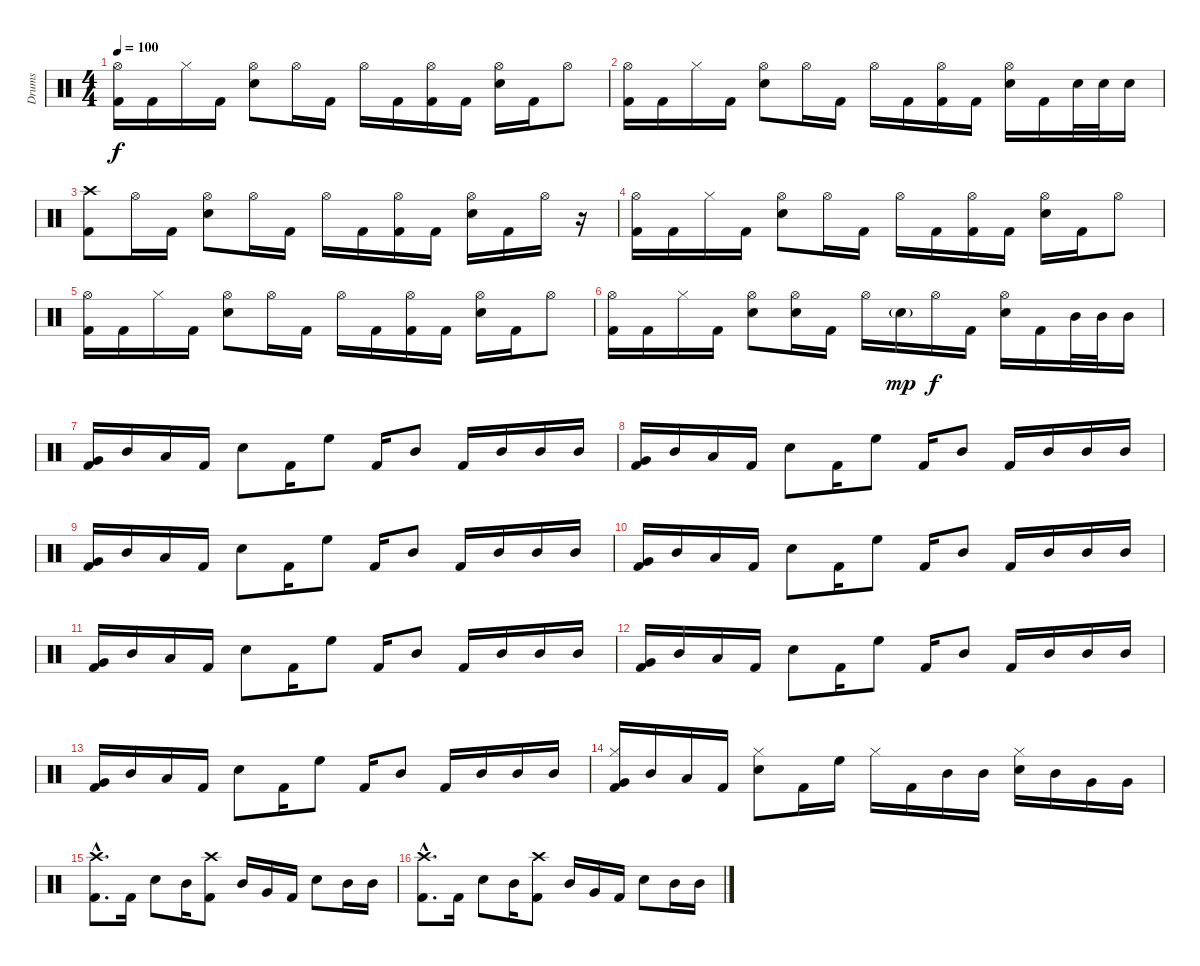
\track ("Drums" "Drums") {instrument percussion}
\staff {score}
\articulation defaults
\ts (4 4)
\tempo 100
\clef neutral
\ks c
("Hi-Hat (open)" "Kick (hit) 2").16{dy f} "Kick (hit) 2".16 "Hi-Hat (closed)".16 "Kick (hit) 2".16 ("Hi-Hat (open)" "Snare (hit) 2").8 "Hi-Hat (open)".16 "Kick (hit) 2".16 "Hi-Hat (open)".16 "Kick (hit) 2".16 ("Hi-Hat (open)" "Kick (hit) 2").16 "Kick (hit) 2".16 ("Hi-Hat (open)" "Snare (hit) 2").16 "Kick (hit) 2".16 "Hi-Hat (open)".8 |
("Hi-Hat (open)" "Kick (hit) 2").16 "Kick (hit) 2".16 "Hi-Hat (closed)".16 "Kick (hit) 2".16 ("Hi-Hat (open)" "Snare (hit) 2").8 "Hi-Hat (open)".16 "Kick (hit) 2".16 "Hi-Hat (open)".16 "Kick (hit) 2".16 ("Hi-Hat (open)" "Kick (hit) 2").16 "Kick (hit) 2".16 ("Hi-Hat (open)" "Snare (hit) 2").16 "Kick (hit) 2".16 "Snare (hit) 2".32 "Snare (hit) 2".32 "Snare (hit) 2".16 |
("Crash high (hit)" "Kick (hit) 2").8 "Hi-Hat (open)".16 "Kick (hit) 2".16 ("Hi-Hat (open)" "Snare (hit) 2").8 "Hi-Hat (open)".16 "Kick (hit) 2".16 "Hi-Hat (open)".16 "Kick (hit) 2".16 ("Hi-Hat (open)" "Kick (hit) 2").16 "Kick (hit) 2".16 ("Hi-Hat (open)" "Snare (hit) 2").16 "Kick (hit) 2".16 "Hi-Hat (open)".16 r.16 |
("Hi-Hat (open)" "Kick (hit) 2").16 "Kick (hit) 2".16 "Hi-Hat (closed)".16 "Kick (hit) 2".16 ("Hi-Hat (open)" "Snare (hit) 2").8 "Hi-Hat (open)".16 "Kick (hit) 2".16 "Hi-Hat (open)".16 "Kick (hit) 2".16 ("Hi-Hat (open)" "Kick (hit) 2").16 "Kick (hit) 2".16 ("Hi-Hat (open)" "Snare (hit) 2").16 "Kick (hit) 2".16 "Hi-Hat (open)".8 |
("Hi-Hat (open)" "Kick (hit) 2").16 "Kick (hit) 2".16 "Hi-Hat (closed)".16 "Kick (hit) 2".16 ("Hi-Hat (open)" "Snare (hit) 2").8 "Hi-Hat (open)".16 "Kick (hit) 2".16 "Hi-Hat (open)".16 "Kick (hit) 2".16 ("Hi-Hat (open)" "Kick (hit) 2").16 "Kick (hit) 2".16 ("Hi-Hat (open)" "Snare (hit) 2").16 "Kick (hit) 2".16 "Hi-Hat (open)".8 |
("Hi-Hat (open)" "Kick (hit) 2").16 "Kick (hit) 2".16 "Hi-Hat (closed)".16 "Kick (hit) 2".16 ("Hi-Hat (open)" "Snare (hit) 2").8 ("Hi-Hat (open)" "Snare (hit) 2").16 "Kick (hit) 2".16 "Hi-Hat (open)".16 "Snare (hit) 2"{g}.16{dy mp} "Hi-Hat (open)".16{dy f} "Kick (hit) 2".16 ("Hi-Hat (open)" "Snare (hit) 2").16 "Kick (hit) 2".16 "Mid Tom (hit)".32 "Mid Tom (hit)".32 "Mid Tom (hit)".16 |
("Very Low Tom (hit)" "Kick (hit) 2").16 "Mid Tom (hit)".16 "Low Floor Tom (hit)".16 "Kick (hit) 2".16 "Snare (hit) 2".8 "Kick (hit) 2".16 "High Floor Tom (hit)".8 "Kick (hit) 2".16 "Mid Tom (hit)".8 "Kick (hit) 2".16 "Mid Tom (hit)".16 "Mid Tom (hit)".16 "Mid Tom (hit)".16 |
("Very Low Tom (hit)" "Kick (hit) 2").16 "Mid Tom (hit)".16 "Low Floor Tom (hit)".16 "Kick (hit) 2".16 "Snare (hit) 2".8 "Kick (hit) 2".16 "High Floor Tom (hit)".8 "Kick (hit) 2".16 "Mid Tom (hit)".8 "Kick (hit) 2".16 "Mid Tom (hit)".16 "Mid Tom (hit)".16 "Mid Tom (hit)".16 |
("Very Low Tom (hit)" "Kick (hit) 2").16 "Mid Tom (hit)".16 "Low Floor Tom (hit)".16 "Kick (hit) 2".16 "Snare (hit) 2".8 "Kick (hit) 2".16 "High Floor Tom (hit)".8 "Kick (hit) 2".16 "Mid Tom (hit)".8 "Kick (hit) 2".16 "Mid Tom (hit)".16 "Mid Tom (hit)".16 "Mid Tom (hit)".16 |
("Very Low Tom (hit)" "Kick (hit) 2").16 "Mid Tom (hit)".16 "Low Floor Tom (hit)".16 "Kick (hit) 2".16 "Snare (hit) 2".8 "Kick (hit) 2".16 "High Floor Tom (hit)".8 "Kick (hit) 2".16 "Mid Tom (hit)".8 "Kick (hit) 2".16 "Mid Tom (hit)".16 "Mid Tom (hit)".16 "Mid Tom (hit)".16 |
("Very Low Tom (hit)" "Kick (hit) 2").16 "Mid Tom (hit)".16 "Low Floor Tom (hit)".16 "Kick (hit) 2".16 "Snare (hit) 2".8 "Kick (hit) 2".16 "High Floor Tom (hit)".8 "Kick (hit) 2".16 "Mid Tom (hit)".8 "Kick (hit) 2".16 "Mid Tom (hit)".16 "Mid Tom (hit)".16 "Mid Tom (hit)".16 |
("Very Low Tom (hit)" "Kick (hit) 2").16 "Mid Tom (hit)".16 "Low Floor Tom (hit)".16 "Kick (hit) 2".16 "Snare (hit) 2".8 "Kick (hit) 2".16 "High Floor Tom (hit)".8 "Kick (hit) 2".16 "Mid Tom (hit)".8 "Kick (hit) 2".16 "Mid Tom (hit)".16 "Mid Tom (hit)".16 "Mid Tom (hit)".16 |
("Very Low Tom (hit)" "Kick (hit) 2").16 "Mid Tom (hit)".16 "Low Floor Tom (hit)".16 "Kick (hit) 2".16 "Snare (hit) 2".8 "Kick (hit) 2".16 "High Floor Tom (hit)".8 "Kick (hit) 2".16 "Mid Tom (hit)".8 "Kick (hit) 2".16 "Mid Tom (hit)".16 "Mid Tom (hit)".16 "Mid Tom (hit)".16 |
("Hi-Hat (closed)" "Very Low Tom (hit)" "Kick (hit) 2").16 "Mid Tom (hit)".16 "Low Floor Tom (hit)".16 "Kick (hit) 2".16 ("Snare (hit) 2" "Hi-Hat (closed)").8 "Kick (hit) 2".16 "High Floor Tom (hit)".16 "Hi-Hat (closed)".16 "Kick (hit) 2".16 "Mid Tom (hit)".16 "Mid Tom (hit)".16 ("Snare (hit) 2" "Hi-Hat (closed)").16 "Mid Tom (hit)".16 "Very Low Tom (hit)".16 "Very Low Tom (hit)".16 |
("Crash high (hit)"{hac} "Kick (hit) 2"{hac}).8{d} "Kick (hit) 2".16 "Snare (hit) 2".8 "Mid Tom (hit)".16 ("Crash high (hit)" "Kick (hit) 2").8 "Mid Tom (hit)".16 "Very Low Tom (hit)".16 "Kick (hit) 2".16 "Snare (hit) 2".8 "Mid Tom (hit)".16 "Mid Tom (hit)".16 |
("Crash high (hit)"{hac} "Kick (hit) 2"{hac}).8{d} "Kick (hit) 2".16 "Snare (hit) 2".8 "Mid Tom (hit)".16 ("Crash high (hit)" "Kick (hit) 2").8 "Mid Tom (hit)".16 "Very Low Tom (hit)".16 "Kick (hit) 2".16 "Snare (hit) 2".8 "Mid Tom (hit)".16 "Mid Tom (hit)".16
